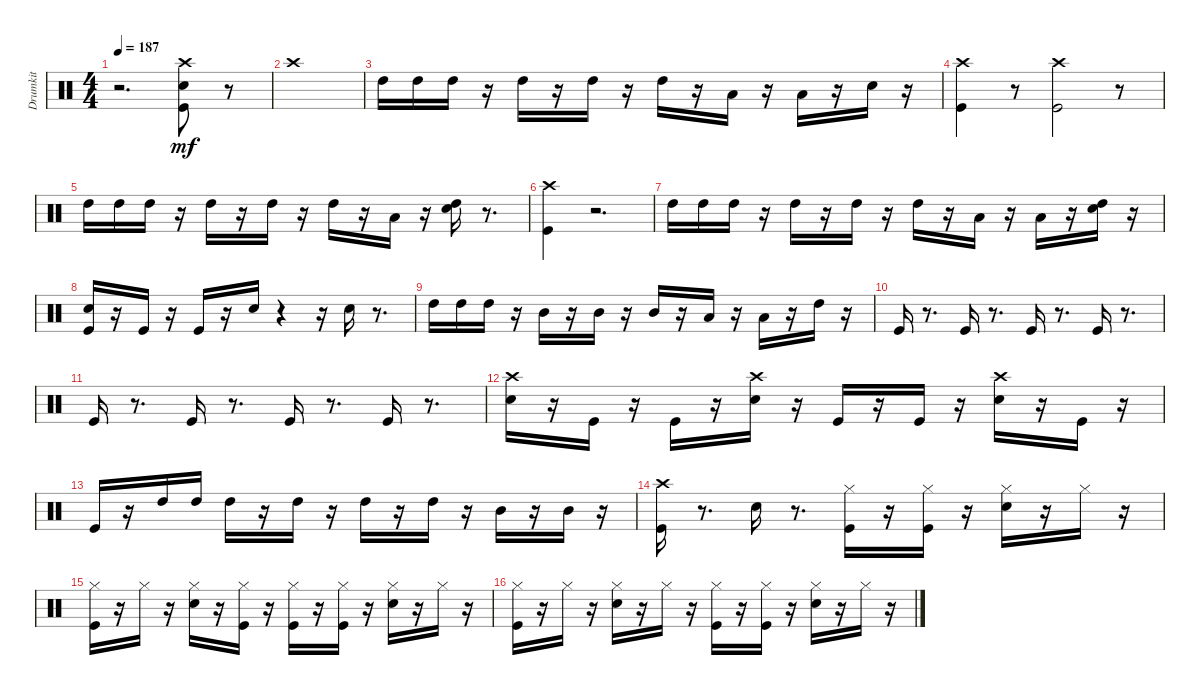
\track ("Drumkit" "Drumkit") {instrument percussion}
\staff {score}
\articulation defaults
\ts (4 4)
\tempo 187
\clef neutral
\ks c
r.2{d dy mf} ("Snare (hit) 2" "Kick (hit)" "Crash high (hit)").8 r.8 |
"Crash high (hit)".1 |
"High Tom (hit)".16 "High Tom (hit)".16 "High Tom (hit)".16 r.16 "High Tom (hit)".16 r.16 "High Tom (hit)".16 r.16 "High Tom (hit)".16 r.16 "Low Tom (hit)".16 r.16 "Low Tom (hit)".16 r.16 "Snare (hit) 2".16 r.16 |
("Crash high (hit)" "Kick (hit)").4 r.8 ("Crash high (hit)" "Kick (hit)").2 r.8 |
"High Tom (hit)".16 "High Tom (hit)".16 "High Tom (hit)".16 r.16 "High Tom (hit)".16 r.16 "High Tom (hit)".16 r.16 "High Tom (hit)".16 r.16 "Low Tom (hit)".16 r.16 ("High Tom (hit)" "Snare (hit) 2").16 r.8{d} |
("Crash high (hit)" "Kick (hit)").4 r.2{d} |
"High Tom (hit)".16 "High Tom (hit)".16 "High Tom (hit)".16 r.16 "High Tom (hit)".16 r.16 "High Tom (hit)".16 r.16 "High Tom (hit)".16 r.16 "Low Tom (hit)".16 r.16 "Low Floor Tom (hit)".16 r.16 ("High Tom (hit)" "Snare (hit) 2").16 r.16 |
("Snare (hit) 2" "Kick (hit)").16 r.16 "Kick (hit)".16 r.16 "Kick (hit)".16 r.16 "Snare (hit) 2".16 r.4 r.16 "Snare (hit) 2".16 r.8{d} |
"High Tom (hit)".16 "High Tom (hit)".16 "High Tom (hit)".16 r.16 "Mid Tom (hit)".16 r.16 "Mid Tom (hit)".16 r.16 "Mid Tom (hit)".16 r.16 "Low Tom (hit)".16 r.16 "Low Tom (hit)".16 r.16 "High Tom (hit)".16 r.16 |
"Kick (hit)".16 r.8{d} "Kick (hit)".16 r.8{d} "Kick (hit)".16 r.8{d} "Kick (hit)".16 r.8{d} |
"Kick (hit)".16 r.8{d} "Kick (hit)".16 r.8{d} "Kick (hit)".16 r.8{d} "Kick (hit)".16 r.8{d} |
("Snare (hit) 2" "Crash high (hit)").16 r.16 "Kick (hit)".16 r.16 "Kick (hit)".16 r.16 ("Snare (hit) 2" "Crash high (hit)").16 r.16 "Kick (hit)".16 r.16 "Kick (hit)".16 r.16 ("Snare (hit) 2" "Crash high (hit)").16 r.16 "Kick (hit)".16 r.16 |
"Kick (hit)".16 r.16 "High Tom (hit)".16 "High Tom (hit)".16 "High Tom (hit)".16 r.16 "High Tom (hit)".16 r.16 "High Tom (hit)".16 r.16 "High Tom (hit)".16 r.16 "Mid Tom (hit)".16 r.16 "Mid Tom (hit)".16 r.16 |
("Crash high (hit)" "Kick (hit)").16 r.8{d} "Snare (hit) 2".16 r.8{d} ("Kick (hit)" "Hi-Hat (closed)").16 r.16 ("Kick (hit)" "Hi-Hat (closed)").16 r.16 ("Snare (hit) 2" "Hi-Hat (closed)").16 r.16 "Hi-Hat (closed)".16 r.16 |
("Kick (hit)" "Hi-Hat (closed)").16 r.16 "Hi-Hat (closed)".16 r.16 ("Snare (hit) 2" "Hi-Hat (closed)").16 r.16 ("Kick (hit)" "Hi-Hat (closed)").16 r.16 ("Kick (hit)" "Hi-Hat (closed)").16 r.16 ("Kick (hit)" "Hi-Hat (closed)").16 r.16 ("Snare (hit) 2" "Hi-Hat (closed)").16 r.16 "Hi-Hat (closed)".16 r.16 |
("Kick (hit)" "Hi-Hat (closed)").16 r.16 "Hi-Hat (closed)".16 r.16 ("Snare (hit) 2" "Hi-Hat (closed)").16 r.16 "Hi-Hat (closed)".16 r.16 ("Kick (hit)" "Hi-Hat (closed)").16 r.16 ("Kick (hit)" "Hi-Hat (closed)").16 r.16 ("Snare (hit) 2" "Hi-Hat (closed)").16 r.16 "Hi-Hat (closed)".16 r.16
